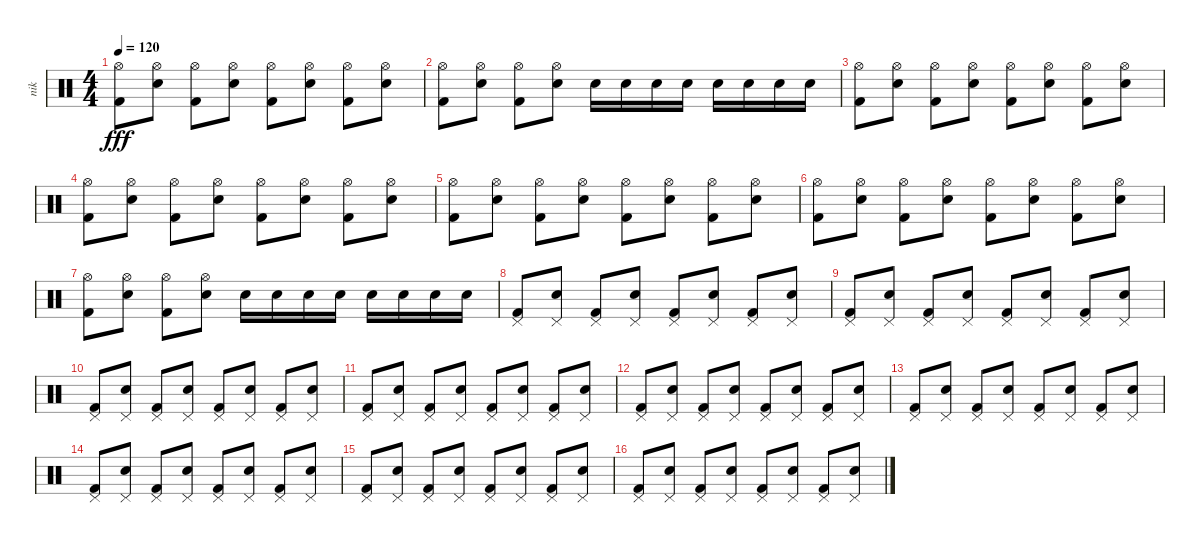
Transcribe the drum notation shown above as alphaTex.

\track ("nik" "nik") {instrument percussion}
\staff {score}
\articulation defaults
\ts (4 4)
\tempo 120
\clef neutral
\ks c
("Kick (hit) 2" "Hi-Hat (open)").8{dy fff} ("Electric Snare (hit)" "Hi-Hat (open)").8 ("Kick (hit) 2" "Hi-Hat (open)").8 ("Electric Snare (hit)" "Hi-Hat (open)").8 ("Kick (hit) 2" "Hi-Hat (open)").8 ("Electric Snare (hit)" "Hi-Hat (open)").8 ("Kick (hit) 2" "Hi-Hat (open)").8 ("Electric Snare (hit)" "Hi-Hat (open)").8 |
("Kick (hit) 2" "Hi-Hat (open)").8 ("Electric Snare (hit)" "Hi-Hat (open)").8 ("Kick (hit) 2" "Hi-Hat (open)").8 ("Electric Snare (hit)" "Hi-Hat (open)").8 "Electric Snare (hit)".16 "Electric Snare (hit)".16 "Electric Snare (hit)".16 "Electric Snare (hit)".16 "Electric Snare (hit)".16 "Electric Snare (hit)".16 "Electric Snare (hit)".16 "Electric Snare (hit)".16 |
("Kick (hit) 2" "Hi-Hat (open)").8 ("Electric Snare (hit)" "Hi-Hat (open)").8 ("Kick (hit) 2" "Hi-Hat (open)").8 ("Electric Snare (hit)" "Hi-Hat (open)").8 ("Kick (hit) 2" "Hi-Hat (open)").8 ("Electric Snare (hit)" "Hi-Hat (open)").8 ("Kick (hit) 2" "Hi-Hat (open)").8 ("Electric Snare (hit)" "Hi-Hat (open)").8 |
("Kick (hit) 2" "Hi-Hat (open)").8 ("Electric Snare (hit)" "Hi-Hat (open)").8 ("Kick (hit) 2" "Hi-Hat (open)").8 ("Electric Snare (hit)" "Hi-Hat (open)").8 ("Kick (hit) 2" "Hi-Hat (open)").8 ("Electric Snare (hit)" "Hi-Hat (open)").8 ("Kick (hit) 2" "Hi-Hat (open)").8 ("Electric Snare (hit)" "Hi-Hat (open)").8 |
("Kick (hit) 2" "Hi-Hat (open)").8 ("Electric Snare (hit)" "Hi-Hat (open)").8 ("Kick (hit) 2" "Hi-Hat (open)").8 ("Electric Snare (hit)" "Hi-Hat (open)").8 ("Kick (hit) 2" "Hi-Hat (open)").8 ("Electric Snare (hit)" "Hi-Hat (open)").8 ("Kick (hit) 2" "Hi-Hat (open)").8 ("Electric Snare (hit)" "Hi-Hat (open)").8 |
("Kick (hit) 2" "Hi-Hat (open)").8 ("Electric Snare (hit)" "Hi-Hat (open)").8 ("Kick (hit) 2" "Hi-Hat (open)").8 ("Electric Snare (hit)" "Hi-Hat (open)").8 ("Kick (hit) 2" "Hi-Hat (open)").8 ("Electric Snare (hit)" "Hi-Hat (open)").8 ("Kick (hit) 2" "Hi-Hat (open)").8 ("Electric Snare (hit)" "Hi-Hat (open)").8 |
("Kick (hit) 2" "Hi-Hat (open)").8 ("Electric Snare (hit)" "Hi-Hat (open)").8 ("Kick (hit) 2" "Hi-Hat (open)").8 ("Electric Snare (hit)" "Hi-Hat (open)").8 "Electric Snare (hit)".16 "Electric Snare (hit)".16 "Electric Snare (hit)".16 "Electric Snare (hit)".16 "Electric Snare (hit)".16 "Electric Snare (hit)".16 "Electric Snare (hit)".16 "Electric Snare (hit)".16 |
("Pedal Hi-Hat (hit)" "Kick (hit) 2").8 ("Pedal Hi-Hat (hit)" "Electric Snare (hit)").8 ("Pedal Hi-Hat (hit)" "Kick (hit) 2").8 ("Pedal Hi-Hat (hit)" "Electric Snare (hit)").8 ("Pedal Hi-Hat (hit)" "Kick (hit) 2").8 ("Pedal Hi-Hat (hit)" "Electric Snare (hit)").8 ("Pedal Hi-Hat (hit)" "Kick (hit) 2").8 ("Pedal Hi-Hat (hit)" "Electric Snare (hit)").8 |
("Pedal Hi-Hat (hit)" "Kick (hit) 2").8 ("Pedal Hi-Hat (hit)" "Electric Snare (hit)").8 ("Pedal Hi-Hat (hit)" "Kick (hit) 2").8 ("Pedal Hi-Hat (hit)" "Electric Snare (hit)").8 ("Pedal Hi-Hat (hit)" "Kick (hit) 2").8 ("Pedal Hi-Hat (hit)" "Electric Snare (hit)").8 ("Pedal Hi-Hat (hit)" "Kick (hit) 2").8 ("Pedal Hi-Hat (hit)" "Electric Snare (hit)").8 |
("Pedal Hi-Hat (hit)" "Kick (hit) 2").8 ("Pedal Hi-Hat (hit)" "Electric Snare (hit)").8 ("Pedal Hi-Hat (hit)" "Kick (hit) 2").8 ("Pedal Hi-Hat (hit)" "Electric Snare (hit)").8 ("Pedal Hi-Hat (hit)" "Kick (hit) 2").8 ("Pedal Hi-Hat (hit)" "Electric Snare (hit)").8 ("Pedal Hi-Hat (hit)" "Kick (hit) 2").8 ("Pedal Hi-Hat (hit)" "Electric Snare (hit)").8 |
("Pedal Hi-Hat (hit)" "Kick (hit) 2").8 ("Pedal Hi-Hat (hit)" "Electric Snare (hit)").8 ("Pedal Hi-Hat (hit)" "Kick (hit) 2").8 ("Pedal Hi-Hat (hit)" "Electric Snare (hit)").8 ("Pedal Hi-Hat (hit)" "Kick (hit) 2").8 ("Pedal Hi-Hat (hit)" "Electric Snare (hit)").8 ("Pedal Hi-Hat (hit)" "Kick (hit) 2").8 ("Pedal Hi-Hat (hit)" "Electric Snare (hit)").8 |
("Pedal Hi-Hat (hit)" "Kick (hit) 2").8 ("Pedal Hi-Hat (hit)" "Electric Snare (hit)").8 ("Pedal Hi-Hat (hit)" "Kick (hit) 2").8 ("Pedal Hi-Hat (hit)" "Electric Snare (hit)").8 ("Pedal Hi-Hat (hit)" "Kick (hit) 2").8 ("Pedal Hi-Hat (hit)" "Electric Snare (hit)").8 ("Pedal Hi-Hat (hit)" "Kick (hit) 2").8 ("Pedal Hi-Hat (hit)" "Electric Snare (hit)").8 |
("Pedal Hi-Hat (hit)" "Kick (hit) 2").8 ("Pedal Hi-Hat (hit)" "Electric Snare (hit)").8 ("Pedal Hi-Hat (hit)" "Kick (hit) 2").8 ("Pedal Hi-Hat (hit)" "Electric Snare (hit)").8 ("Pedal Hi-Hat (hit)" "Kick (hit) 2").8 ("Pedal Hi-Hat (hit)" "Electric Snare (hit)").8 ("Pedal Hi-Hat (hit)" "Kick (hit) 2").8 ("Pedal Hi-Hat (hit)" "Electric Snare (hit)").8 |
("Pedal Hi-Hat (hit)" "Kick (hit) 2").8 ("Pedal Hi-Hat (hit)" "Electric Snare (hit)").8 ("Pedal Hi-Hat (hit)" "Kick (hit) 2").8 ("Pedal Hi-Hat (hit)" "Electric Snare (hit)").8 ("Pedal Hi-Hat (hit)" "Kick (hit) 2").8 ("Pedal Hi-Hat (hit)" "Electric Snare (hit)").8 ("Pedal Hi-Hat (hit)" "Kick (hit) 2").8 ("Pedal Hi-Hat (hit)" "Electric Snare (hit)").8 |
("Pedal Hi-Hat (hit)" "Kick (hit) 2").8 ("Pedal Hi-Hat (hit)" "Electric Snare (hit)").8 ("Pedal Hi-Hat (hit)" "Kick (hit) 2").8 ("Pedal Hi-Hat (hit)" "Electric Snare (hit)").8 ("Pedal Hi-Hat (hit)" "Kick (hit) 2").8 ("Pedal Hi-Hat (hit)" "Electric Snare (hit)").8 ("Pedal Hi-Hat (hit)" "Kick (hit) 2").8 ("Pedal Hi-Hat (hit)" "Electric Snare (hit)").8 |
("Pedal Hi-Hat (hit)" "Kick (hit) 2").8 ("Pedal Hi-Hat (hit)" "Electric Snare (hit)").8 ("Pedal Hi-Hat (hit)" "Kick (hit) 2").8 ("Pedal Hi-Hat (hit)" "Electric Snare (hit)").8 ("Pedal Hi-Hat (hit)" "Kick (hit) 2").8 ("Pedal Hi-Hat (hit)" "Electric Snare (hit)").8 ("Pedal Hi-Hat (hit)" "Kick (hit) 2").8 ("Pedal Hi-Hat (hit)" "Electric Snare (hit)").8
